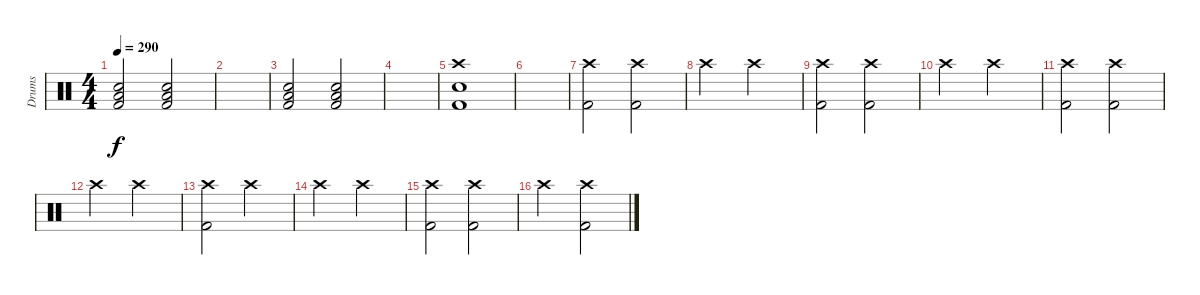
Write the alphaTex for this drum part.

\track ("Drums" "Drums") {instrument percussion}
\staff {score}
\articulation defaults
\ts (4 4)
\tempo 290
\clef neutral
\ks c
("Snare (hit) 2" "Low Tom (hit)" "Kick (hit) 2").2{dy f} ("Snare (hit) 2" "Low Tom (hit)" "Kick (hit) 2").2 |
|
("Snare (hit) 2" "Low Tom (hit)" "Kick (hit) 2").2 ("Snare (hit) 2" "Low Tom (hit)" "Kick (hit) 2").2 |
|
("Crash high (hit)" "Snare (hit) 2" "Kick (hit) 2").1 |
|
("Crash high (hit)" "Kick (hit) 2").2 ("Crash high (hit)" "Kick (hit) 2").2 |
"Crash high (hit)".2 "Crash high (hit)".2 |
("Crash high (hit)" "Kick (hit) 2").2 ("Crash high (hit)" "Kick (hit) 2").2 |
"Crash high (hit)".2 "Crash high (hit)".2 |
("Crash high (hit)" "Kick (hit) 2").2 ("Crash high (hit)" "Kick (hit) 2").2 |
"Crash high (hit)".2 "Crash high (hit)".2 |
("Crash high (hit)" "Kick (hit) 2").2 "Crash high (hit)".2 |
"Crash high (hit)".2 "Crash high (hit)".2 |
("Crash high (hit)" "Kick (hit) 2").2 ("Crash high (hit)" "Kick (hit) 2").2 |
"Crash high (hit)".2 ("Crash high (hit)" "Kick (hit) 2").2
